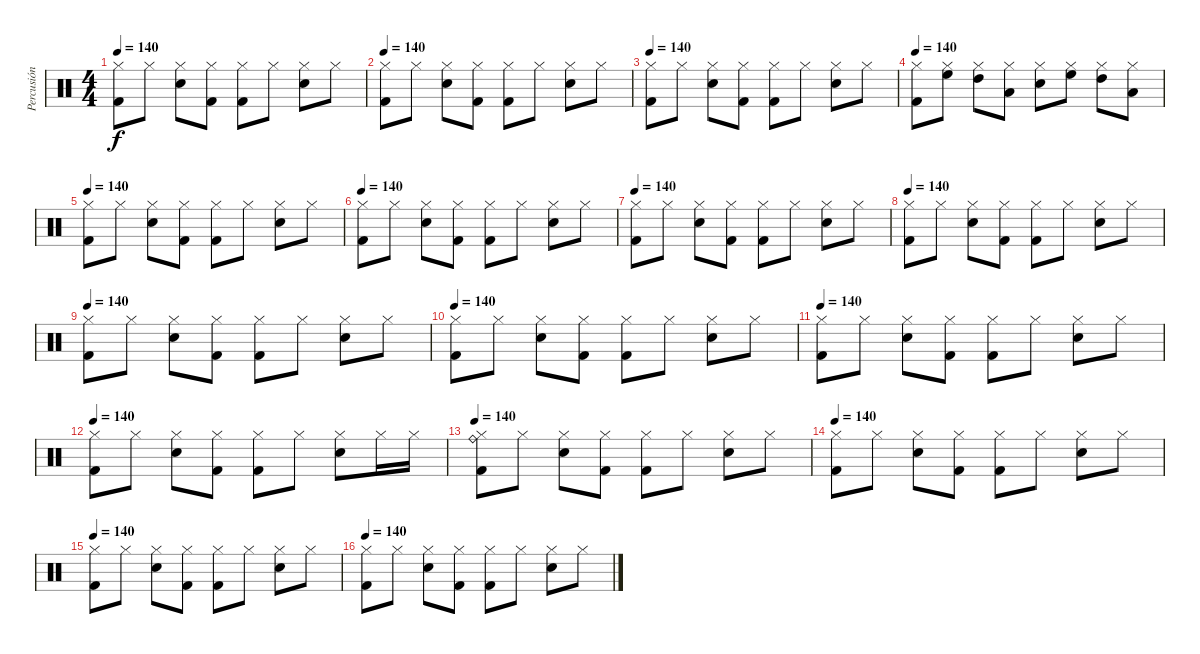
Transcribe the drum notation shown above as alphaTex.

\track ("Percusión" "Percusión") {instrument percussion}
\staff {score}
\articulation defaults
\ts (4 4)
\tempo 140
\clef neutral
\ks c
("Kick (hit) 2" "Hi-Hat (closed)").8{dy f} "Hi-Hat (closed)".8 ("Snare (hit) 2" "Hi-Hat (closed)").8 ("Kick (hit) 2" "Hi-Hat (closed)").8 ("Kick (hit) 2" "Hi-Hat (closed)").8 "Hi-Hat (closed)".8 ("Snare (hit) 2" "Hi-Hat (closed)").8 "Hi-Hat (closed)".8 |
\tempo 140
("Kick (hit) 2" "Hi-Hat (closed)").8 "Hi-Hat (closed)".8 ("Snare (hit) 2" "Hi-Hat (closed)").8 ("Kick (hit) 2" "Hi-Hat (closed)").8 ("Kick (hit) 2" "Hi-Hat (closed)").8 "Hi-Hat (closed)".8 ("Snare (hit) 2" "Hi-Hat (closed)").8 "Hi-Hat (closed)".8 |
\tempo 140
("Kick (hit) 2" "Hi-Hat (closed)").8 "Hi-Hat (closed)".8 ("Snare (hit) 2" "Hi-Hat (closed)").8 ("Kick (hit) 2" "Hi-Hat (closed)").8 ("Kick (hit) 2" "Hi-Hat (closed)").8 "Hi-Hat (closed)".8 ("Snare (hit) 2" "Hi-Hat (closed)").8 "Hi-Hat (closed)".8 |
\tempo 140
("Kick (hit) 2" "Hi-Hat (closed)").8 ("High Floor Tom (hit)" "Hi-Hat (closed)").8 ("High Tom (hit)" "Hi-Hat (closed)").8 ("Low Tom (hit)" "Hi-Hat (closed)").8 ("Snare (hit) 2" "Hi-Hat (closed)").8 ("High Floor Tom (hit)" "Hi-Hat (closed)").8 ("High Tom (hit)" "Hi-Hat (closed)").8 ("Low Tom (hit)" "Hi-Hat (closed)").8 |
\tempo 140
("Kick (hit) 2" "Hi-Hat (closed)").8 "Hi-Hat (closed)".8 ("Snare (hit) 2" "Hi-Hat (closed)").8 ("Kick (hit) 2" "Hi-Hat (closed)").8 ("Kick (hit) 2" "Hi-Hat (closed)").8 "Hi-Hat (closed)".8 ("Snare (hit) 2" "Hi-Hat (closed)").8 "Hi-Hat (closed)".8 |
\tempo 140
("Kick (hit) 2" "Hi-Hat (closed)").8 "Hi-Hat (closed)".8 ("Snare (hit) 2" "Hi-Hat (closed)").8 ("Kick (hit) 2" "Hi-Hat (closed)").8 ("Kick (hit) 2" "Hi-Hat (closed)").8 "Hi-Hat (closed)".8 ("Snare (hit) 2" "Hi-Hat (closed)").8 "Hi-Hat (closed)".8 |
\tempo 140
("Kick (hit) 2" "Hi-Hat (closed)").8 "Hi-Hat (closed)".8 ("Snare (hit) 2" "Hi-Hat (closed)").8 ("Kick (hit) 2" "Hi-Hat (closed)").8 ("Kick (hit) 2" "Hi-Hat (closed)").8 "Hi-Hat (closed)".8 ("Snare (hit) 2" "Hi-Hat (closed)").8 "Hi-Hat (closed)".8 |
\tempo 140
("Kick (hit) 2" "Hi-Hat (closed)").8 "Hi-Hat (closed)".8 ("Snare (hit) 2" "Hi-Hat (closed)").8 ("Kick (hit) 2" "Hi-Hat (closed)").8 ("Kick (hit) 2" "Hi-Hat (closed)").8 "Hi-Hat (closed)".8 ("Snare (hit) 2" "Hi-Hat (closed)").8 "Hi-Hat (closed)".8 |
\tempo 140
("Kick (hit) 2" "Hi-Hat (closed)").8 "Hi-Hat (closed)".8 ("Snare (hit) 2" "Hi-Hat (closed)").8 ("Kick (hit) 2" "Hi-Hat (closed)").8 ("Kick (hit) 2" "Hi-Hat (closed)").8 "Hi-Hat (closed)".8 ("Snare (hit) 2" "Hi-Hat (closed)").8 "Hi-Hat (closed)".8 |
\tempo 140
("Kick (hit) 2" "Hi-Hat (closed)").8 "Hi-Hat (closed)".8 ("Snare (hit) 2" "Hi-Hat (closed)").8 ("Kick (hit) 2" "Hi-Hat (closed)").8 ("Kick (hit) 2" "Hi-Hat (closed)").8 "Hi-Hat (closed)".8 ("Snare (hit) 2" "Hi-Hat (closed)").8 "Hi-Hat (closed)".8 |
\tempo 140
("Kick (hit) 2" "Hi-Hat (closed)").8 "Hi-Hat (closed)".8 ("Snare (hit) 2" "Hi-Hat (closed)").8 ("Kick (hit) 2" "Hi-Hat (closed)").8 ("Kick (hit) 2" "Hi-Hat (closed)").8 "Hi-Hat (closed)".8 ("Snare (hit) 2" "Hi-Hat (closed)").8 "Hi-Hat (closed)".8 |
\tempo 140
("Kick (hit) 2" "Hi-Hat (closed)").8 "Hi-Hat (closed)".8 ("Snare (hit) 2" "Hi-Hat (closed)").8 ("Kick (hit) 2" "Hi-Hat (closed)").8 ("Kick (hit) 2" "Hi-Hat (closed)").8 "Hi-Hat (closed)".8 ("Snare (hit) 2" "Hi-Hat (closed)").8 "Hi-Hat (closed)".16 "Hi-Hat (closed)".16 |
\tempo 140
("Kick (hit) 2" "Ride (bell)" "Hi-Hat (closed)").8 "Hi-Hat (closed)".8 ("Snare (hit) 2" "Hi-Hat (closed)").8 ("Kick (hit) 2" "Hi-Hat (closed)").8 ("Kick (hit) 2" "Hi-Hat (closed)").8 "Hi-Hat (closed)".8 ("Snare (hit) 2" "Hi-Hat (closed)").8 "Hi-Hat (closed)".8 |
\tempo 140
("Kick (hit) 2" "Hi-Hat (closed)").8 "Hi-Hat (closed)".8 ("Snare (hit) 2" "Hi-Hat (closed)").8 ("Kick (hit) 2" "Hi-Hat (closed)").8 ("Kick (hit) 2" "Hi-Hat (closed)").8 "Hi-Hat (closed)".8 ("Snare (hit) 2" "Hi-Hat (closed)").8 "Hi-Hat (closed)".8 |
\tempo 140
("Kick (hit) 2" "Hi-Hat (closed)").8 "Hi-Hat (closed)".8 ("Snare (hit) 2" "Hi-Hat (closed)").8 ("Kick (hit) 2" "Hi-Hat (closed)").8 ("Kick (hit) 2" "Hi-Hat (closed)").8 "Hi-Hat (closed)".8 ("Snare (hit) 2" "Hi-Hat (closed)").8 "Hi-Hat (closed)".8 |
\tempo 140
("Kick (hit) 2" "Hi-Hat (closed)").8 "Hi-Hat (closed)".8 ("Snare (hit) 2" "Hi-Hat (closed)").8 ("Kick (hit) 2" "Hi-Hat (closed)").8 ("Kick (hit) 2" "Hi-Hat (closed)").8 "Hi-Hat (closed)".8 ("Snare (hit) 2" "Hi-Hat (closed)").8 "Hi-Hat (closed)".8
